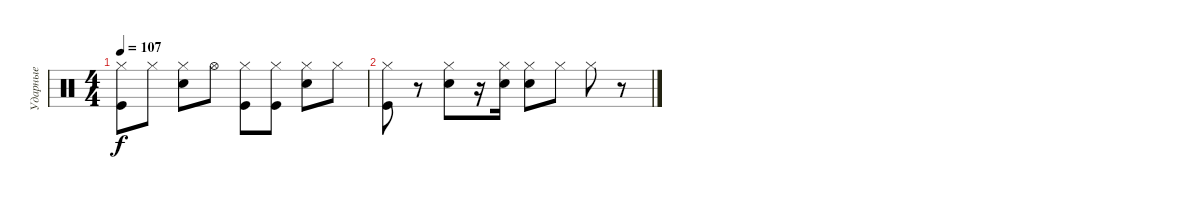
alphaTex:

\track ("Ударные" "Ударные") {instrument percussion}
\staff {score}
\articulation defaults
\ts (4 4)
\tempo 107
\clef neutral
\ks c
("Hi-Hat (closed)" "Kick (hit)").8{dy f} "Hi-Hat (closed)".8 ("Hi-Hat (closed)" "Electric Snare (hit)").8 "Hi-Hat (open)".8 ("Hi-Hat (closed)" "Kick (hit)").8 ("Hi-Hat (closed)" "Kick (hit)").8 ("Hi-Hat (closed)" "Electric Snare (hit)").8 "Hi-Hat (closed)".8 |
("Hi-Hat (closed)" "Kick (hit)").8 r.8 ("Hi-Hat (closed)" "Electric Snare (hit)").8 r.16 ("Hi-Hat (closed)" "Electric Snare (hit)").16 ("Hi-Hat (closed)" "Electric Snare (hit)").8 "Hi-Hat (closed)".8 "Hi-Hat (closed)".8 r.8
